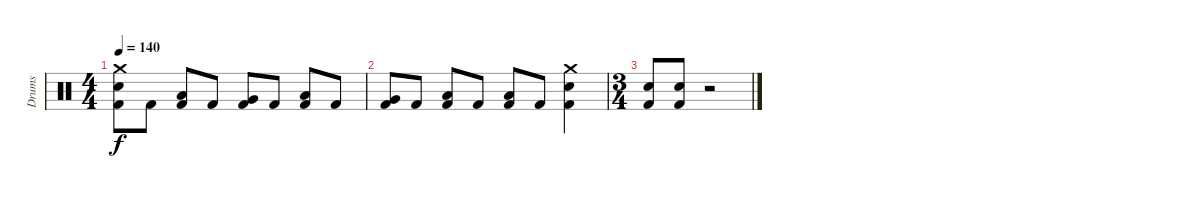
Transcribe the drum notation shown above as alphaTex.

\track ("Drums" "Drums") {instrument percussion}
\staff {score}
\articulation defaults
\ts (4 4)
\tempo 140
\clef neutral
\ks c
("Crash medium (hit)" "Electric Snare (hit)" "Kick (hit) 2").8{dy f} "Kick (hit) 2".8 ("Low Floor Tom (hit)" "Kick (hit) 2").8 "Kick (hit) 2".8 ("Very Low Tom (hit)" "Kick (hit) 2").8 "Kick (hit) 2".8 ("Low Floor Tom (hit)" "Kick (hit) 2").8 "Kick (hit) 2".8 |
("Very Low Tom (hit)" "Kick (hit) 2").8 "Kick (hit) 2".8 ("Low Floor Tom (hit)" "Kick (hit) 2").8 "Kick (hit) 2".8 ("Low Floor Tom (hit)" "Kick (hit) 2").8 "Kick (hit) 2".8 ("Crash medium (hit)" "Electric Snare (hit)" "Kick (hit) 2").4 |
\ts (3 4)
("Electric Snare (hit)" "Kick (hit) 2").8 ("Electric Snare (hit)" "Kick (hit) 2").8 r.2
